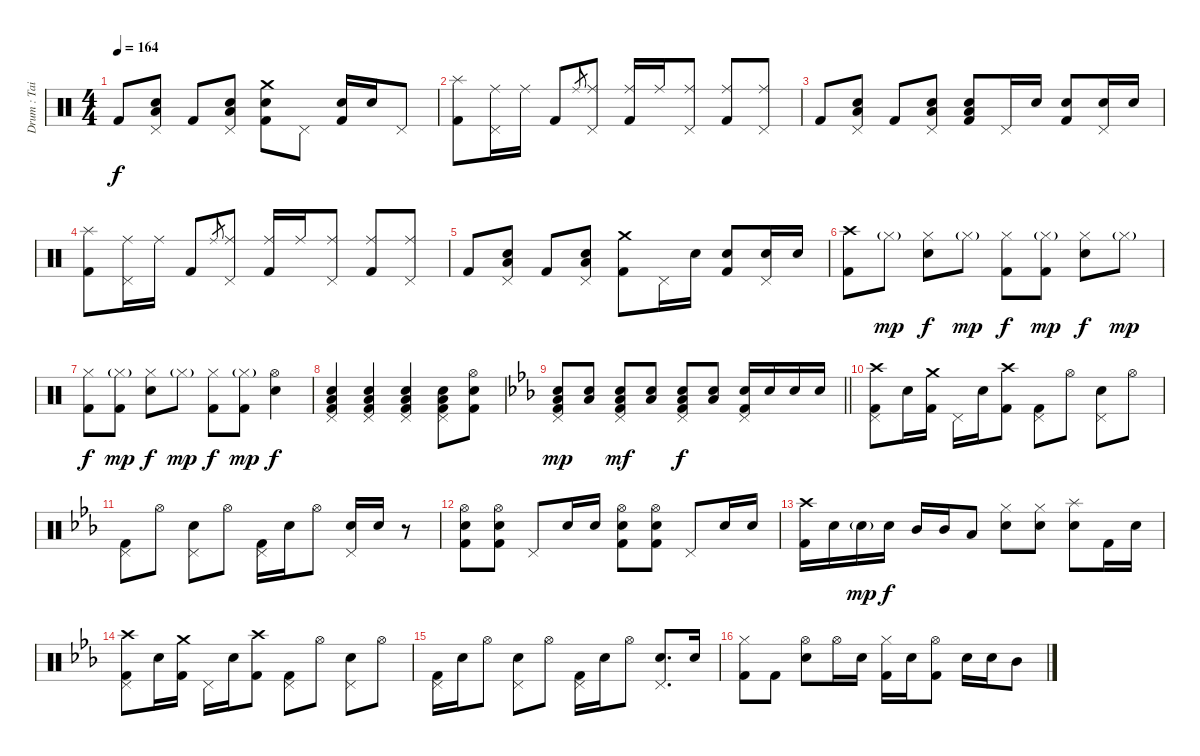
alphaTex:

\track ("Drum : Tainaka Ritsu - Chan" "Drum : Tai") {instrument percussion}
\staff {score}
\articulation defaults
\ts (4 4)
\tempo 164
\clef neutral
\ks c "Kick (hit) 2".8{dy f}
("Pedal Hi-Hat (hit)" "Electric Snare (hit)" "Low Floor Tom (hit)").8 "Kick (hit) 2".8 ("Pedal Hi-Hat (hit)" "Electric Snare (hit)" "Low Floor Tom (hit)").8 ("Crash medium (hit)" "Electric Snare (hit)" "Kick (hit) 2").8 "Pedal Hi-Hat (hit)".8 ("Electric Snare (hit)" "Kick (hit) 2").16 "Electric Snare (hit)".16 "Pedal Hi-Hat (hit)".8 |
("Splash (hit)" "Kick (hit) 2").8 ("Ride (middle)" "Pedal Hi-Hat (hit)").16 "Ride (middle)".16 "Kick (hit) 2".8 "Ride (middle)".8{gr} ("Ride (middle)" "Pedal Hi-Hat (hit)").8 ("Ride (middle)" "Kick (hit) 2").16 "Ride (middle)".16 ("Ride (middle)" "Pedal Hi-Hat (hit)").8 ("Ride (middle)" "Kick (hit) 2").8 ("Ride (middle)" "Pedal Hi-Hat (hit)").8 |
"Kick (hit) 2".8 ("Pedal Hi-Hat (hit)" "Electric Snare (hit)" "Low Floor Tom (hit)").8 "Kick (hit) 2".8 ("Pedal Hi-Hat (hit)" "Electric Snare (hit)" "Low Floor Tom (hit)").8 ("Electric Snare (hit)" "Low Floor Tom (hit)" "Kick (hit) 2").8 "Pedal Hi-Hat (hit)".16 "Electric Snare (hit)".16 ("Electric Snare (hit)" "Kick (hit) 2").8 ("Pedal Hi-Hat (hit)" "Electric Snare (hit)").16 "Electric Snare (hit)".16 |
("Splash (hit)" "Kick (hit) 2").8 ("Ride (middle)" "Pedal Hi-Hat (hit)").16 "Ride (middle)".16 "Kick (hit) 2".8 "Ride (middle)".8{gr} ("Ride (middle)" "Pedal Hi-Hat (hit)").8 ("Ride (middle)" "Kick (hit) 2").16 "Ride (middle)".16 ("Ride (middle)" "Pedal Hi-Hat (hit)").8 ("Ride (middle)" "Kick (hit) 2").8 ("Ride (middle)" "Pedal Hi-Hat (hit)").8 |
"Kick (hit) 2".8 ("Pedal Hi-Hat (hit)" "Electric Snare (hit)" "Low Floor Tom (hit)").8 "Kick (hit) 2".8 ("Pedal Hi-Hat (hit)" "Electric Snare (hit)" "Low Floor Tom (hit)").8 ("Crash medium (hit)" "Kick (hit) 2").8 "Pedal Hi-Hat (hit)".16 "Electric Snare (hit)".16 ("Electric Snare (hit)" "Kick (hit) 2").8 ("Pedal Hi-Hat (hit)" "Electric Snare (hit)").16 "Electric Snare (hit)".16 |
("Crash high (hit)" "Kick (hit) 2").8 "Hi-Hat (closed)"{g}.8{dy mp} ("Hi-Hat (closed)" "Electric Snare (hit)").8{dy f} "Hi-Hat (closed)"{g}.8{dy mp} ("Hi-Hat (closed)" "Kick (hit) 2").8{dy f} ("Hi-Hat (closed)"{g} "Kick (hit) 2").8{dy mp} ("Hi-Hat (closed)" "Electric Snare (hit)").8{dy f} "Hi-Hat (closed)"{g}.8{dy mp} |
("Hi-Hat (closed)" "Kick (hit) 2").8{dy f} ("Hi-Hat (closed)"{g} "Kick (hit) 2").8{dy mp} ("Hi-Hat (closed)" "Electric Snare (hit)").8{dy f} "Hi-Hat (closed)"{g}.8{dy mp} ("Hi-Hat (closed)" "Kick (hit) 2").8{dy f} ("Hi-Hat (closed)"{g} "Kick (hit) 2").8{dy mp} ("Hi-Hat (open)" "Electric Snare (hit)").4{dy f} |
("Pedal Hi-Hat (hit)" "Electric Snare (hit)" "Low Floor Tom (hit)" "Kick (hit) 2").4 ("Pedal Hi-Hat (hit)" "Electric Snare (hit)" "Low Floor Tom (hit)" "Kick (hit) 2").4 ("Pedal Hi-Hat (hit)" "Electric Snare (hit)" "Low Floor Tom (hit)" "Kick (hit) 2").4 ("Pedal Hi-Hat (hit)" "Electric Snare (hit)" "Low Floor Tom (hit)" "Kick (hit) 2").8 ("Hi-Hat (open)" "Electric Snare (hit)" "Kick (hit) 2").8 |
\barLineRight lightlight
\ks eb
("Pedal Hi-Hat (hit)" "Electric Snare (hit)" "Low Floor Tom (hit)" "Kick (hit) 2").8{dy mp} ("Electric Snare (hit)" "Low Floor Tom (hit)").8 ("Pedal Hi-Hat (hit)" "Electric Snare (hit)" "Low Floor Tom (hit)" "Kick (hit) 2").8{dy mf} ("Electric Snare (hit)" "Low Floor Tom (hit)").8 ("Pedal Hi-Hat (hit)" "Electric Snare (hit)" "Low Floor Tom (hit)" "Kick (hit) 2").8{dy f} ("Electric Snare (hit)" "Low Floor Tom (hit)").8 ("Pedal Hi-Hat (hit)" "Electric Snare (hit)" "Kick (hit) 2").16 "Electric Snare (hit)".16 "Electric Snare (hit)".16 "Electric Snare (hit)".16 |
("Crash high (hit)" "Pedal Hi-Hat (hit)" "Kick (hit) 2").8 "Electric Snare (hit)".16 ("Crash medium (hit)" "Kick (hit) 2").16 "Pedal Hi-Hat (hit)".16 "Electric Snare (hit)".16 ("Crash high (hit)" "Kick (hit) 2").8 ("Pedal Hi-Hat (hit)" "Kick (hit) 2").8 "Hi-Hat (open)".8 ("Pedal Hi-Hat (hit)" "Electric Snare (hit)").8 "Hi-Hat (open)".8 |
("Pedal Hi-Hat (hit)" "Kick (hit) 2").8 "Hi-Hat (open)".8 ("Pedal Hi-Hat (hit)" "Electric Snare (hit)").8 "Hi-Hat (open)".8 ("Pedal Hi-Hat (hit)" "Kick (hit) 2").16 "Electric Snare (hit)".16 "Hi-Hat (open)".8 ("Pedal Hi-Hat (hit)" "Electric Snare (hit)").16 "Electric Snare (hit)".16 r.8 |
("Hi-Hat (open)" "Electric Snare (hit)" "Kick (hit) 2").8 ("Hi-Hat (open)" "Electric Snare (hit)" "Kick (hit) 2").8 "Pedal Hi-Hat (hit)".8 "Electric Snare (hit)".16 "Electric Snare (hit)".16 ("Hi-Hat (open)" "Electric Snare (hit)" "Kick (hit) 2").8 ("Hi-Hat (open)" "Electric Snare (hit)" "Kick (hit) 2").8 "Pedal Hi-Hat (hit)".8 "Electric Snare (hit)".16 "Electric Snare (hit)".16 |
("Crash high (hit)" "Kick (hit) 2").16 "Electric Snare (hit)".16 "Electric Snare (hit)"{g}.16{dy mp} "Electric Snare (hit)".16{dy f} "Mid Tom (hit)".16 "Mid Tom (hit)".16 "Low Tom (hit)".8 ("Hi-Hat (closed)" "Electric Snare (hit)").8 ("Hi-Hat (closed)" "Electric Snare (hit)").8 ("Splash (hit)" "Electric Snare (hit)").8 "Kick (hit) 2".16 "Electric Snare (hit)".16 |
("Crash high (hit)" "Pedal Hi-Hat (hit)" "Kick (hit) 2").8 "Electric Snare (hit)".16 ("Crash medium (hit)" "Kick (hit) 2").16 "Pedal Hi-Hat (hit)".16 "Electric Snare (hit)".16 ("Crash high (hit)" "Kick (hit) 2").8 ("Pedal Hi-Hat (hit)" "Kick (hit) 2").8 "Hi-Hat (open)".8 ("Pedal Hi-Hat (hit)" "Electric Snare (hit)").8 "Hi-Hat (open)".8 |
("Pedal Hi-Hat (hit)" "Kick (hit) 2").16 "Electric Snare (hit)".16 "Hi-Hat (open)".8 ("Pedal Hi-Hat (hit)" "Electric Snare (hit)").8 "Hi-Hat (open)".8 ("Pedal Hi-Hat (hit)" "Kick (hit) 2").16 "Electric Snare (hit)".16 "Hi-Hat (open)".8 ("Pedal Hi-Hat (hit)" "Electric Snare (hit)").8{d} "Electric Snare (hit)".16 |
("Hi-Hat (closed)" "Kick (hit) 2").8 "Kick (hit) 2".8 ("Hi-Hat (open)" "Electric Snare (hit)").8 "Hi-Hat (open)".16 "Electric Snare (hit)".16 ("Hi-Hat (closed)" "Kick (hit) 2").16 "Electric Snare (hit)".16 ("Hi-Hat (open)" "Kick (hit) 2").8 "Electric Snare (hit)".16 "Electric Snare (hit)".16 "Mid Tom (hit)".8
